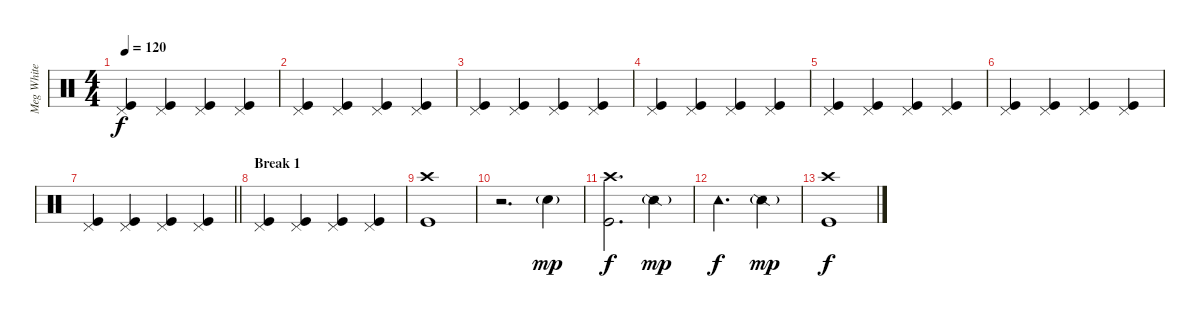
\track ("Meg White (Drums)" "Meg White ") {instrument percussion}
\staff {score}
\articulation defaults
\ts (4 4)
\tempo 120
\clef neutral
\ks c
("Kick (hit)" "Pedal Hi-Hat (hit)").4{dy f} ("Kick (hit)" "Pedal Hi-Hat (hit)").4 ("Kick (hit)" "Pedal Hi-Hat (hit)").4 ("Kick (hit)" "Pedal Hi-Hat (hit)").4 |
("Kick (hit)" "Pedal Hi-Hat (hit)").4 ("Kick (hit)" "Pedal Hi-Hat (hit)").4 ("Kick (hit)" "Pedal Hi-Hat (hit)").4 ("Kick (hit)" "Pedal Hi-Hat (hit)").4 |
("Kick (hit)" "Pedal Hi-Hat (hit)").4 ("Kick (hit)" "Pedal Hi-Hat (hit)").4 ("Kick (hit)" "Pedal Hi-Hat (hit)").4 ("Kick (hit)" "Pedal Hi-Hat (hit)").4 |
("Kick (hit)" "Pedal Hi-Hat (hit)").4 ("Kick (hit)" "Pedal Hi-Hat (hit)").4 ("Kick (hit)" "Pedal Hi-Hat (hit)").4 ("Kick (hit)" "Pedal Hi-Hat (hit)").4 |
("Kick (hit)" "Pedal Hi-Hat (hit)").4 ("Kick (hit)" "Pedal Hi-Hat (hit)").4 ("Kick (hit)" "Pedal Hi-Hat (hit)").4 ("Kick (hit)" "Pedal Hi-Hat (hit)").4 |
("Kick (hit)" "Pedal Hi-Hat (hit)").4 ("Kick (hit)" "Pedal Hi-Hat (hit)").4 ("Kick (hit)" "Pedal Hi-Hat (hit)").4 ("Kick (hit)" "Pedal Hi-Hat (hit)").4 |
\barLineRight lightlight
("Kick (hit)" "Pedal Hi-Hat (hit)").4 ("Kick (hit)" "Pedal Hi-Hat (hit)").4 ("Kick (hit)" "Pedal Hi-Hat (hit)").4 ("Kick (hit)" "Pedal Hi-Hat (hit)").4 |
\section ("" "Break 1")
("Kick (hit)" "Pedal Hi-Hat (hit)").4 ("Kick (hit)" "Pedal Hi-Hat (hit)").4 ("Kick (hit)" "Pedal Hi-Hat (hit)").4 ("Kick (hit)" "Pedal Hi-Hat (hit)").4 |
("Kick (hit)" "Crash high (hit)").1 |
r.2{d} "Metronome (bell)"{g}.4{dy mp} |
("Kick (hit)" "Crash high (hit)").2{d dy f} "Snare (side stick) 2"{g}.4{dy mp} |
"Tambourine (hit)".2{d dy f} "Snare (side stick) 2"{g}.4{dy mp} |
("Kick (hit)" "Crash high (hit)").1{dy f}
